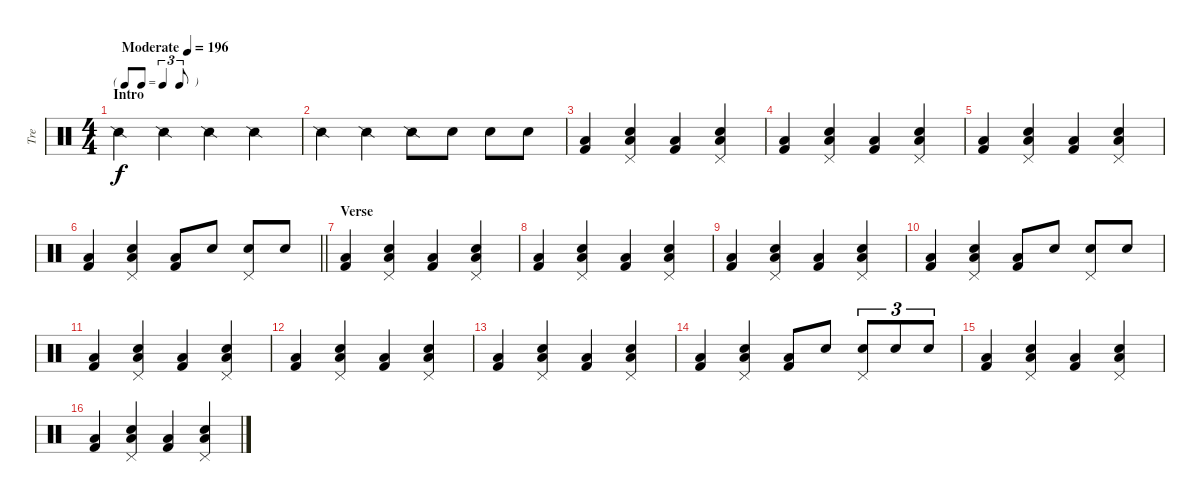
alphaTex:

\track ("Tre" "Tre") {instrument percussion}
\staff {score}
\articulation defaults
\ts (4 4)
\tf triplet8th
\section ("" "Intro")
\tempo (196 "Moderate")
\clef neutral
\ks c "Snare (side stick) 2".4{dy f} "Snare (side stick) 2".4 "Snare (side stick) 2".4 "Snare (side stick) 2".4
|
"Snare (side stick) 2".4 "Snare (side stick) 2".4 "Snare (side stick) 2".8 "Snare (hit) 2".8 "Snare (hit) 2".8 "Snare (hit) 2".8 |
("Low Floor Tom (hit)" "Kick (hit) 2").4 ("Snare (hit) 2" "Low Floor Tom (hit)" "Pedal Hi-Hat (hit)").4 ("Low Floor Tom (hit)" "Kick (hit) 2").4 ("Snare (hit) 2" "Low Floor Tom (hit)" "Pedal Hi-Hat (hit)").4 |
("Low Floor Tom (hit)" "Kick (hit) 2").4 ("Snare (hit) 2" "Low Floor Tom (hit)" "Pedal Hi-Hat (hit)").4 ("Low Floor Tom (hit)" "Kick (hit) 2").4 ("Snare (hit) 2" "Low Floor Tom (hit)" "Pedal Hi-Hat (hit)").4 |
("Low Floor Tom (hit)" "Kick (hit) 2").4 ("Snare (hit) 2" "Low Floor Tom (hit)" "Pedal Hi-Hat (hit)").4 ("Low Floor Tom (hit)" "Kick (hit) 2").4 ("Snare (hit) 2" "Low Floor Tom (hit)" "Pedal Hi-Hat (hit)").4 |
\barLineRight lightlight
("Low Floor Tom (hit)" "Kick (hit) 2").4 ("Snare (hit) 2" "Low Floor Tom (hit)" "Pedal Hi-Hat (hit)").4 ("Low Floor Tom (hit)" "Kick (hit) 2").8 "Snare (hit) 2".8 ("Snare (hit) 2" "Pedal Hi-Hat (hit)").8 "Snare (hit) 2".8 |
\section ("" "Verse")
("Low Floor Tom (hit)" "Kick (hit) 2").4 ("Snare (hit) 2" "Low Floor Tom (hit)" "Pedal Hi-Hat (hit)").4 ("Low Floor Tom (hit)" "Kick (hit) 2").4 ("Snare (hit) 2" "Low Floor Tom (hit)" "Pedal Hi-Hat (hit)").4 |
("Low Floor Tom (hit)" "Kick (hit) 2").4 ("Snare (hit) 2" "Low Floor Tom (hit)" "Pedal Hi-Hat (hit)").4 ("Low Floor Tom (hit)" "Kick (hit) 2").4 ("Snare (hit) 2" "Low Floor Tom (hit)" "Pedal Hi-Hat (hit)").4 |
("Low Floor Tom (hit)" "Kick (hit) 2").4 ("Snare (hit) 2" "Low Floor Tom (hit)" "Pedal Hi-Hat (hit)").4 ("Low Floor Tom (hit)" "Kick (hit) 2").4 ("Snare (hit) 2" "Low Floor Tom (hit)" "Pedal Hi-Hat (hit)").4 |
("Low Floor Tom (hit)" "Kick (hit) 2").4 ("Snare (hit) 2" "Low Floor Tom (hit)" "Pedal Hi-Hat (hit)").4 ("Low Floor Tom (hit)" "Kick (hit) 2").8 "Snare (hit) 2".8 ("Snare (hit) 2" "Pedal Hi-Hat (hit)").8 "Snare (hit) 2".8 |
("Low Floor Tom (hit)" "Kick (hit) 2").4 ("Snare (hit) 2" "Low Floor Tom (hit)" "Pedal Hi-Hat (hit)").4 ("Low Floor Tom (hit)" "Kick (hit) 2").4 ("Snare (hit) 2" "Low Floor Tom (hit)" "Pedal Hi-Hat (hit)").4 |
("Low Floor Tom (hit)" "Kick (hit) 2").4 ("Snare (hit) 2" "Low Floor Tom (hit)" "Pedal Hi-Hat (hit)").4 ("Low Floor Tom (hit)" "Kick (hit) 2").4 ("Snare (hit) 2" "Low Floor Tom (hit)" "Pedal Hi-Hat (hit)").4 |
("Low Floor Tom (hit)" "Kick (hit) 2").4 ("Snare (hit) 2" "Low Floor Tom (hit)" "Pedal Hi-Hat (hit)").4 ("Low Floor Tom (hit)" "Kick (hit) 2").4 ("Snare (hit) 2" "Low Floor Tom (hit)" "Pedal Hi-Hat (hit)").4 |
("Low Floor Tom (hit)" "Kick (hit) 2").4 ("Snare (hit) 2" "Low Floor Tom (hit)" "Pedal Hi-Hat (hit)").4 ("Low Floor Tom (hit)" "Kick (hit) 2").8 "Snare (hit) 2".8 ("Snare (hit) 2" "Pedal Hi-Hat (hit)").8{tu (3 2)} "Snare (hit) 2".8{tu (3 2)} "Snare (hit) 2".8{tu (3 2)} |
("Low Floor Tom (hit)" "Kick (hit) 2").4 ("Snare (hit) 2" "Low Floor Tom (hit)" "Pedal Hi-Hat (hit)").4 ("Low Floor Tom (hit)" "Kick (hit) 2").4 ("Snare (hit) 2" "Low Floor Tom (hit)" "Pedal Hi-Hat (hit)").4 |
("Low Floor Tom (hit)" "Kick (hit) 2").4 ("Snare (hit) 2" "Low Floor Tom (hit)" "Pedal Hi-Hat (hit)").4 ("Low Floor Tom (hit)" "Kick (hit) 2").4 ("Snare (hit) 2" "Low Floor Tom (hit)" "Pedal Hi-Hat (hit)").4
